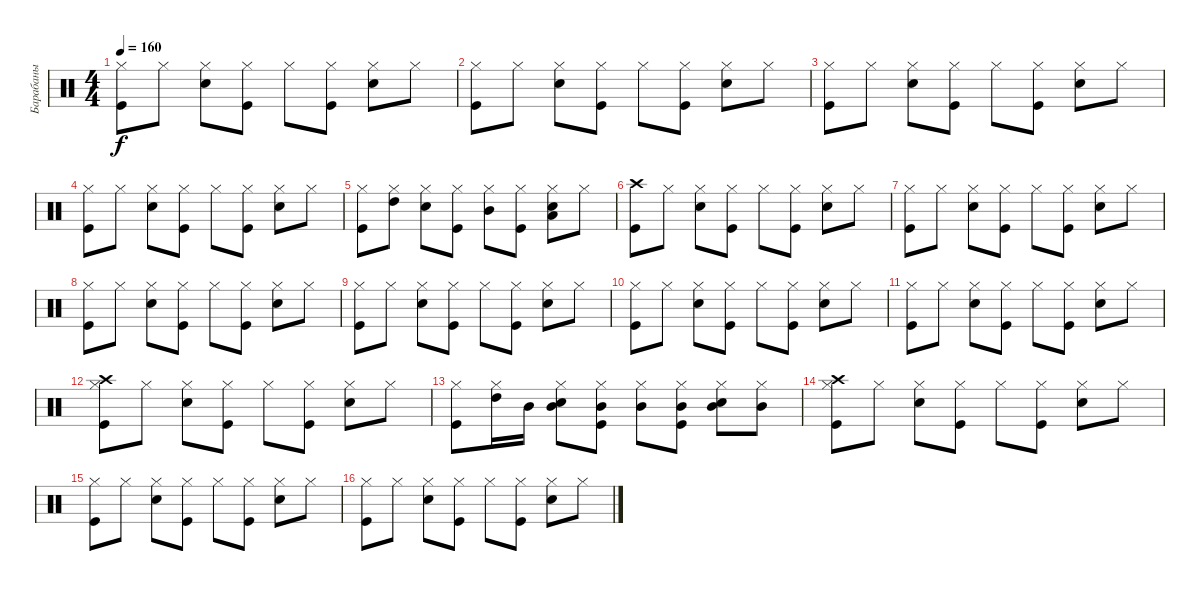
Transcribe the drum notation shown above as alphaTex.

\track ("Барабаны" "Барабаны") {instrument percussion}
\staff {score}
\articulation defaults
\ts (4 4)
\tempo 160
\clef neutral
\ks c
("Kick (hit)" "Hi-Hat (closed)").8{dy f} "Hi-Hat (closed)".8 ("Snare (hit) 2" "Hi-Hat (closed)").8 ("Kick (hit)" "Hi-Hat (closed)").8 "Hi-Hat (closed)".8 ("Kick (hit)" "Hi-Hat (closed)").8 ("Snare (hit) 2" "Hi-Hat (closed)").8 "Hi-Hat (closed)".8 |
("Kick (hit)" "Hi-Hat (closed)").8 "Hi-Hat (closed)".8 ("Snare (hit) 2" "Hi-Hat (closed)").8 ("Kick (hit)" "Hi-Hat (closed)").8 "Hi-Hat (closed)".8 ("Kick (hit)" "Hi-Hat (closed)").8 ("Snare (hit) 2" "Hi-Hat (closed)").8 "Hi-Hat (closed)".8 |
("Kick (hit)" "Hi-Hat (closed)").8 "Hi-Hat (closed)".8 ("Snare (hit) 2" "Hi-Hat (closed)").8 ("Kick (hit)" "Hi-Hat (closed)").8 "Hi-Hat (closed)".8 ("Kick (hit)" "Hi-Hat (closed)").8 ("Snare (hit) 2" "Hi-Hat (closed)").8 "Hi-Hat (closed)".8 |
("Kick (hit)" "Hi-Hat (closed)").8 "Hi-Hat (closed)".8 ("Snare (hit) 2" "Hi-Hat (closed)").8 ("Kick (hit)" "Hi-Hat (closed)").8 "Hi-Hat (closed)".8 ("Kick (hit)" "Hi-Hat (closed)").8 ("Snare (hit) 2" "Hi-Hat (closed)").8 "Hi-Hat (closed)".8 |
("Kick (hit)" "Hi-Hat (closed)").8 ("High Tom (hit)" "Hi-Hat (closed)").8 ("Snare (hit) 2" "Hi-Hat (closed)").8 ("Kick (hit)" "Hi-Hat (closed)").8 ("Mid Tom (hit)" "Hi-Hat (closed)").8 ("Kick (hit)" "Hi-Hat (closed)").8 ("Snare (hit) 2" "Low Tom (hit)" "Hi-Hat (closed)").8 "Hi-Hat (closed)".8 |
("Kick (hit)" "Crash high (hit)").8 "Hi-Hat (closed)".8 ("Snare (hit) 2" "Hi-Hat (closed)").8 ("Kick (hit)" "Hi-Hat (closed)").8 "Hi-Hat (closed)".8 ("Kick (hit)" "Hi-Hat (closed)").8 ("Snare (hit) 2" "Hi-Hat (closed)").8 "Hi-Hat (closed)".8 |
("Kick (hit)" "Hi-Hat (closed)").8 "Hi-Hat (closed)".8 ("Snare (hit) 2" "Hi-Hat (closed)").8 ("Kick (hit)" "Hi-Hat (closed)").8 "Hi-Hat (closed)".8 ("Kick (hit)" "Hi-Hat (closed)").8 ("Snare (hit) 2" "Hi-Hat (closed)").8 "Hi-Hat (closed)".8 |
("Kick (hit)" "Hi-Hat (closed)").8 "Hi-Hat (closed)".8 ("Snare (hit) 2" "Hi-Hat (closed)").8 ("Kick (hit)" "Hi-Hat (closed)").8 "Hi-Hat (closed)".8 ("Kick (hit)" "Hi-Hat (closed)").8 ("Snare (hit) 2" "Hi-Hat (closed)").8 "Hi-Hat (closed)".8 |
("Kick (hit)" "Hi-Hat (closed)").8 "Hi-Hat (closed)".8 ("Snare (hit) 2" "Hi-Hat (closed)").8 ("Kick (hit)" "Hi-Hat (closed)").8 "Hi-Hat (closed)".8 ("Kick (hit)" "Hi-Hat (closed)").8 ("Snare (hit) 2" "Hi-Hat (closed)").8 "Hi-Hat (closed)".8 |
("Kick (hit)" "Hi-Hat (closed)").8 "Hi-Hat (closed)".8 ("Snare (hit) 2" "Hi-Hat (closed)").8 ("Kick (hit)" "Hi-Hat (closed)").8 "Hi-Hat (closed)".8 ("Kick (hit)" "Hi-Hat (closed)").8 ("Snare (hit) 2" "Hi-Hat (closed)").8 "Hi-Hat (closed)".8 |
("Kick (hit)" "Hi-Hat (closed)").8 "Hi-Hat (closed)".8 ("Snare (hit) 2" "Hi-Hat (closed)").8 ("Kick (hit)" "Hi-Hat (closed)").8 "Hi-Hat (closed)".8 ("Kick (hit)" "Hi-Hat (closed)").8 ("Snare (hit) 2" "Hi-Hat (closed)").8 "Hi-Hat (closed)".8 |
("Kick (hit)" "Crash high (hit)" "Hi-Hat (closed)").8 "Hi-Hat (closed)".8 ("Snare (hit) 2" "Hi-Hat (closed)").8 ("Kick (hit)" "Hi-Hat (closed)").8 "Hi-Hat (closed)".8 ("Kick (hit)" "Hi-Hat (closed)").8 ("Snare (hit) 2" "Hi-Hat (closed)").8 "Hi-Hat (closed)".8 |
("Kick (hit)" "Hi-Hat (closed)").8 ("High Tom (hit)" "Hi-Hat (closed)").16 "Mid Tom (hit)".16 ("Snare (hit) 2" "Mid Tom (hit)" "Hi-Hat (closed)").8 ("Kick (hit)" "Mid Tom (hit)" "Hi-Hat (closed)").8 ("Mid Tom (hit)" "Hi-Hat (closed)").8 ("Kick (hit)" "Mid Tom (hit)" "Hi-Hat (closed)").8 ("Snare (hit) 2" "Mid Tom (hit)" "Hi-Hat (closed)").8 ("Mid Tom (hit)" "Hi-Hat (closed)").8 |
("Kick (hit)" "Crash high (hit)" "Hi-Hat (closed)").8 "Hi-Hat (closed)".8 ("Snare (hit) 2" "Hi-Hat (closed)").8 ("Kick (hit)" "Hi-Hat (closed)").8 "Hi-Hat (closed)".8 ("Kick (hit)" "Hi-Hat (closed)").8 ("Snare (hit) 2" "Hi-Hat (closed)").8 "Hi-Hat (closed)".8 |
("Kick (hit)" "Hi-Hat (closed)").8 "Hi-Hat (closed)".8 ("Snare (hit) 2" "Hi-Hat (closed)").8 ("Kick (hit)" "Hi-Hat (closed)").8 "Hi-Hat (closed)".8 ("Kick (hit)" "Hi-Hat (closed)").8 ("Snare (hit) 2" "Hi-Hat (closed)").8 "Hi-Hat (closed)".8 |
("Kick (hit)" "Hi-Hat (closed)").8 "Hi-Hat (closed)".8 ("Snare (hit) 2" "Hi-Hat (closed)").8 ("Kick (hit)" "Hi-Hat (closed)").8 "Hi-Hat (closed)".8 ("Kick (hit)" "Hi-Hat (closed)").8 ("Snare (hit) 2" "Hi-Hat (closed)").8 "Hi-Hat (closed)".8
